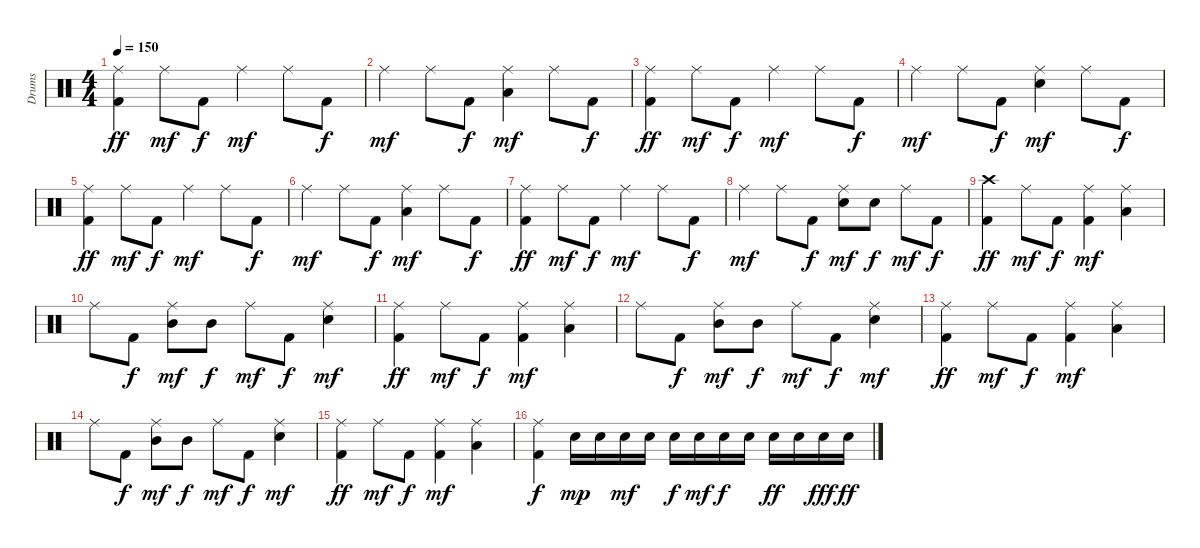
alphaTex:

\track ("Drums" "Drums") {instrument percussion}
\staff {score}
\articulation defaults
\ts (4 4)
\tempo 150
\clef neutral
\ks c
("Ride (middle)" "Kick (hit) 2").4{dy ff} "Ride (middle)".8{dy mf} "Kick (hit) 2".8{dy f} "Ride (middle)".4{dy mf} "Ride (middle)".8 "Kick (hit) 2".8{dy f} |
"Ride (middle)".4{dy mf} "Ride (middle)".8 "Kick (hit) 2".8{dy f} ("Low Floor Tom (hit)" "Ride (middle)").4{dy mf} "Ride (middle)".8 "Kick (hit) 2".8{dy f} |
("Ride (middle)" "Kick (hit) 2").4{dy ff} "Ride (middle)".8{dy mf} "Kick (hit) 2".8{dy f} "Ride (middle)".4{dy mf} "Ride (middle)".8 "Kick (hit) 2".8{dy f} |
"Ride (middle)".4{dy mf} "Ride (middle)".8 "Kick (hit) 2".8{dy f} ("Snare (hit) 2" "Ride (middle)").4{dy mf} "Ride (middle)".8 "Kick (hit) 2".8{dy f} |
("Ride (middle)" "Kick (hit) 2").4{dy ff} "Ride (middle)".8{dy mf} "Kick (hit) 2".8{dy f} "Ride (middle)".4{dy mf} "Ride (middle)".8 "Kick (hit) 2".8{dy f} |
"Ride (middle)".4{dy mf} "Ride (middle)".8 "Kick (hit) 2".8{dy f} ("Low Floor Tom (hit)" "Ride (middle)").4{dy mf} "Ride (middle)".8 "Kick (hit) 2".8{dy f} |
("Ride (middle)" "Kick (hit) 2").4{dy ff} "Ride (middle)".8{dy mf} "Kick (hit) 2".8{dy f} "Ride (middle)".4{dy mf} "Ride (middle)".8 "Kick (hit) 2".8{dy f} |
"Ride (middle)".4{dy mf} "Ride (middle)".8 "Kick (hit) 2".8{dy f} ("Snare (hit) 2" "Ride (middle)").8{dy mf} "Snare (hit) 2".8{dy f} "Ride (middle)".8{dy mf} "Kick (hit) 2".8{dy f} |
("Crash high (hit)" "Kick (hit) 2").4{dy ff} "Ride (middle)".8{dy mf} "Kick (hit) 2".8{dy f} ("Kick (hit) 2" "Ride (middle)").4{dy mf} ("Low Floor Tom (hit)" "Ride (middle)").4 |
"Ride (middle)".8 "Kick (hit) 2".8{dy f} ("Mid Tom (hit)" "Ride (middle)").8{dy mf} "Mid Tom (hit)".8{dy f} "Ride (middle)".8{dy mf} "Kick (hit) 2".8{dy f} ("Snare (hit) 2" "Ride (middle)").4{dy mf} |
("Ride (middle)" "Kick (hit) 2").4{dy ff} "Ride (middle)".8{dy mf} "Kick (hit) 2".8{dy f} ("Kick (hit) 2" "Ride (middle)").4{dy mf} ("Low Floor Tom (hit)" "Ride (middle)").4 |
"Ride (middle)".8 "Kick (hit) 2".8{dy f} ("Mid Tom (hit)" "Ride (middle)").8{dy mf} "Mid Tom (hit)".8{dy f} "Ride (middle)".8{dy mf} "Kick (hit) 2".8{dy f} ("Snare (hit) 2" "Ride (middle)").4{dy mf} |
("Ride (middle)" "Kick (hit) 2").4{dy ff} "Ride (middle)".8{dy mf} "Kick (hit) 2".8{dy f} ("Kick (hit) 2" "Ride (middle)").4{dy mf} ("Low Floor Tom (hit)" "Ride (middle)").4 |
"Ride (middle)".8 "Kick (hit) 2".8{dy f} ("Mid Tom (hit)" "Ride (middle)").8{dy mf} "Mid Tom (hit)".8{dy f} "Ride (middle)".8{dy mf} "Kick (hit) 2".8{dy f} ("Snare (hit) 2" "Ride (middle)").4{dy mf} |
("Ride (middle)" "Kick (hit) 2").4{dy ff} "Ride (middle)".8{dy mf} "Kick (hit) 2".8{dy f} ("Kick (hit) 2" "Ride (middle)").4{dy mf} ("Low Floor Tom (hit)" "Ride (middle)").4 |
("Kick (hit) 2" "Ride (middle)").4{dy f} "Snare (hit) 2".16{dy mp} "Snare (hit) 2".16 "Snare (hit) 2".16{dy mf} "Snare (hit) 2".16 "Snare (hit) 2".16{dy f} "Snare (hit) 2".16{dy mf} "Snare (hit) 2".16{dy f} "Snare (hit) 2".16 "Snare (hit) 2".16{dy ff} "Snare (hit) 2".16 "Snare (hit) 2".16{dy fff} "Snare (hit) 2".16{dy ff}
